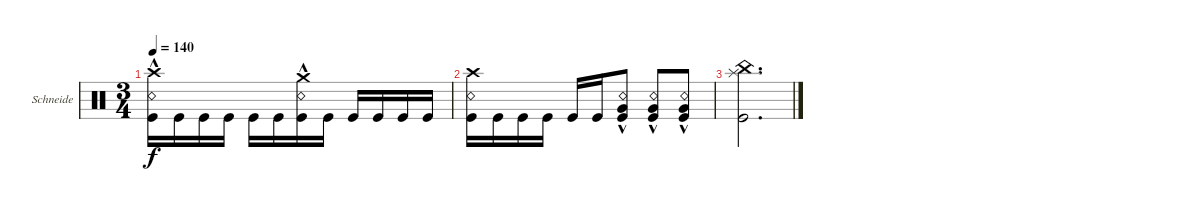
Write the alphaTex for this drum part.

\bracketExtendMode groupsimilarinstruments
\firstSystemTrackNameOrientation horizontal
\otherSystemsTrackNameOrientation horizontal
\track ("Christoph \"Doom\" Schneider" "Schneide") {instrument percussion}
\staff {score}
\articulation defaults
\ts (3 4)
\tempo 140
\clef neutral
\ks c
("Crash high (hit)" "Kick (hit)" "Snare (rim shot)"{hac}).16{dy f} "Kick (hit)".16 "Kick (hit)".16 "Kick (hit)".16 "Kick (hit)".16 "Kick (hit)".16 ("Crash medium (hit)" "Kick (hit)" "Snare (rim shot)"{hac}).16 "Kick (hit)".16 "Kick (hit)".16 "Kick (hit)".16 "Kick (hit)".16 "Kick (hit)".16 |
("Crash high (hit)" "Kick (hit)" "Snare (rim shot)").16 "Kick (hit)".16 "Kick (hit)".16 "Kick (hit)".16 "Kick (hit)".16 "Kick (hit)".16 ("Kick (hit)" "Snare (rim shot)"{hac} "Very Low Tom (hit)"{hac}).8 ("Kick (hit)" "Snare (rim shot)"{hac} "Very Low Tom (hit)"{hac}).8 ("Kick (hit)" "Snare (rim shot)"{hac} "Very Low Tom (hit)"{hac}).8 |
("Splash (hit)" "Kick (hit)" "China (hit)").2{d}
